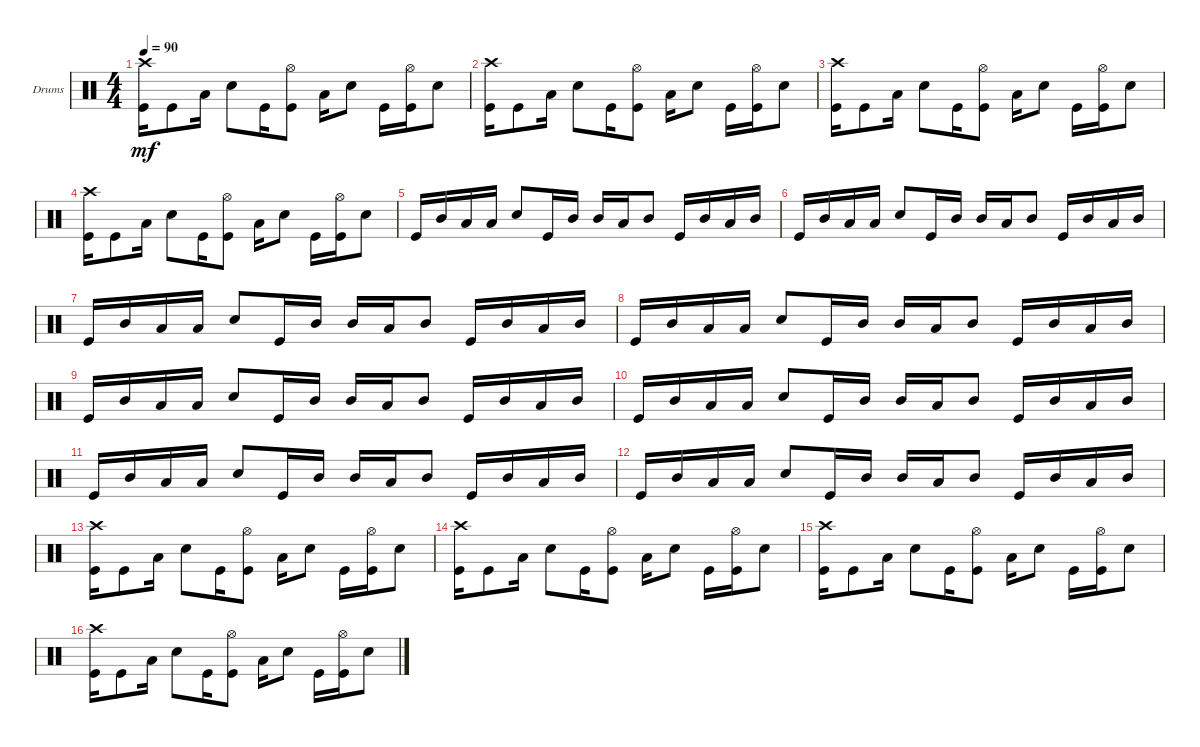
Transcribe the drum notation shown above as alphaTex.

\bracketExtendMode groupsimilarinstruments
\firstSystemTrackNameOrientation horizontal
\otherSystemsTrackNameOrientation horizontal
\track ("Drumkit" "Drums") {instrument percussion}
\staff {score}
\articulation defaults
\ts (4 4)
\tempo 90
\clef neutral
\scale
0.333333
\ks c
("Kick (hit)" "Crash high (hit)").16{dy mf} "Kick (hit)".8 "Low Tom (hit)".16 "Snare (hit) 2".8 "Kick (hit)".16 ("Kick (hit)" "Hi-Hat (open)").8 "Low Tom (hit)".16 "Snare (hit) 2".8 "Kick (hit)".16 ("Kick (hit)" "Hi-Hat (open)").16 "Snare (hit) 2".8 |
\scale
0.333333 ("Kick (hit)" "Crash high (hit)").16 "Kick (hit)".8 "Low Tom (hit)".16 "Snare (hit) 2".8 "Kick (hit)".16 ("Kick (hit)" "Hi-Hat (open)").8 "Low Tom (hit)".16 "Snare (hit) 2".8 "Kick (hit)".16 ("Kick (hit)" "Hi-Hat (open)").16 "Snare (hit) 2".8 |
\scale
0.333333 ("Kick (hit)" "Crash high (hit)").16 "Kick (hit)".8 "Low Tom (hit)".16 "Snare (hit) 2".8 "Kick (hit)".16 ("Kick (hit)" "Hi-Hat (open)").8 "Low Tom (hit)".16 "Snare (hit) 2".8 "Kick (hit)".16 ("Kick (hit)" "Hi-Hat (open)").16 "Snare (hit) 2".8 |
\scale
0.333333 ("Kick (hit)" "Crash high (hit)").16 "Kick (hit)".8 "Low Tom (hit)".16 "Snare (hit) 2".8 "Kick (hit)".16 ("Kick (hit)" "Hi-Hat (open)").8 "Low Tom (hit)".16 "Snare (hit) 2".8 "Kick (hit)".16 ("Kick (hit)" "Hi-Hat (open)").16 "Snare (hit) 2".8 |
\scale
0.333333 "Kick (hit)".16 "Mid Tom (hit)".16 "Low Tom (hit)".16 "Low Tom (hit)".16 "Snare (hit) 2".8 "Kick (hit)".16 "Mid Tom (hit)".16 "Mid Tom (hit)".16 "Low Tom (hit)".16 "Mid Tom (hit)".8 "Kick (hit)".16 "Mid Tom (hit)".16 "Low Tom (hit)".16 "Mid Tom (hit)".16 |
\scale
0.333333 "Kick (hit)".16 "Mid Tom (hit)".16 "Low Tom (hit)".16 "Low Tom (hit)".16 "Snare (hit) 2".8 "Kick (hit)".16 "Mid Tom (hit)".16 "Mid Tom (hit)".16 "Low Tom (hit)".16 "Mid Tom (hit)".8 "Kick (hit)".16 "Mid Tom (hit)".16 "Low Tom (hit)".16 "Mid Tom (hit)".16 |
\scale
0.333333 "Kick (hit)".16 "Mid Tom (hit)".16 "Low Tom (hit)".16 "Low Tom (hit)".16 "Snare (hit) 2".8 "Kick (hit)".16 "Mid Tom (hit)".16 "Mid Tom (hit)".16 "Low Tom (hit)".16 "Mid Tom (hit)".8 "Kick (hit)".16 "Mid Tom (hit)".16 "Low Tom (hit)".16 "Mid Tom (hit)".16 |
\scale
0.333333 "Kick (hit)".16 "Mid Tom (hit)".16 "Low Tom (hit)".16 "Low Tom (hit)".16 "Snare (hit) 2".8 "Kick (hit)".16 "Mid Tom (hit)".16 "Mid Tom (hit)".16 "Low Tom (hit)".16 "Mid Tom (hit)".8 "Kick (hit)".16 "Mid Tom (hit)".16 "Low Tom (hit)".16 "Mid Tom (hit)".16 |
\scale
0.333333 "Kick (hit)".16 "Mid Tom (hit)".16 "Low Tom (hit)".16 "Low Tom (hit)".16 "Snare (hit) 2".8 "Kick (hit)".16 "Mid Tom (hit)".16 "Mid Tom (hit)".16 "Low Tom (hit)".16 "Mid Tom (hit)".8 "Kick (hit)".16 "Mid Tom (hit)".16 "Low Tom (hit)".16 "Mid Tom (hit)".16 |
\scale
0.333333 "Kick (hit)".16 "Mid Tom (hit)".16 "Low Tom (hit)".16 "Low Tom (hit)".16 "Snare (hit) 2".8 "Kick (hit)".16 "Mid Tom (hit)".16 "Mid Tom (hit)".16 "Low Tom (hit)".16 "Mid Tom (hit)".8 "Kick (hit)".16 "Mid Tom (hit)".16 "Low Tom (hit)".16 "Mid Tom (hit)".16 |
\scale
0.333333 "Kick (hit)".16 "Mid Tom (hit)".16 "Low Tom (hit)".16 "Low Tom (hit)".16 "Snare (hit) 2".8 "Kick (hit)".16 "Mid Tom (hit)".16 "Mid Tom (hit)".16 "Low Tom (hit)".16 "Mid Tom (hit)".8 "Kick (hit)".16 "Mid Tom (hit)".16 "Low Tom (hit)".16 "Mid Tom (hit)".16 |
\scale
0.333333 "Kick (hit)".16 "Mid Tom (hit)".16 "Low Tom (hit)".16 "Low Tom (hit)".16 "Snare (hit) 2".8 "Kick (hit)".16 "Mid Tom (hit)".16 "Mid Tom (hit)".16 "Low Tom (hit)".16 "Mid Tom (hit)".8 "Kick (hit)".16 "Mid Tom (hit)".16 "Low Tom (hit)".16 "Mid Tom (hit)".16 |
\scale
0.333333 ("Kick (hit)" "Crash high (hit)").16 "Kick (hit)".8 "Low Tom (hit)".16 "Snare (hit) 2".8 "Kick (hit)".16 ("Kick (hit)" "Hi-Hat (open)").8 "Low Tom (hit)".16 "Snare (hit) 2".8 "Kick (hit)".16 ("Kick (hit)" "Hi-Hat (open)").16 "Snare (hit) 2".8 |
\scale
0.333333 ("Kick (hit)" "Crash high (hit)").16 "Kick (hit)".8 "Low Tom (hit)".16 "Snare (hit) 2".8 "Kick (hit)".16 ("Kick (hit)" "Hi-Hat (open)").8 "Low Tom (hit)".16 "Snare (hit) 2".8 "Kick (hit)".16 ("Kick (hit)" "Hi-Hat (open)").16 "Snare (hit) 2".8 |
\scale
0.333333 ("Kick (hit)" "Crash high (hit)").16 "Kick (hit)".8 "Low Tom (hit)".16 "Snare (hit) 2".8 "Kick (hit)".16 ("Kick (hit)" "Hi-Hat (open)").8 "Low Tom (hit)".16 "Snare (hit) 2".8 "Kick (hit)".16 ("Kick (hit)" "Hi-Hat (open)").16 "Snare (hit) 2".8 |
\scale
0.333333 ("Kick (hit)" "Crash high (hit)").16 "Kick (hit)".8 "Low Tom (hit)".16 "Snare (hit) 2".8 "Kick (hit)".16 ("Kick (hit)" "Hi-Hat (open)").8 "Low Tom (hit)".16 "Snare (hit) 2".8 "Kick (hit)".16 ("Kick (hit)" "Hi-Hat (open)").16 "Snare (hit) 2".8
